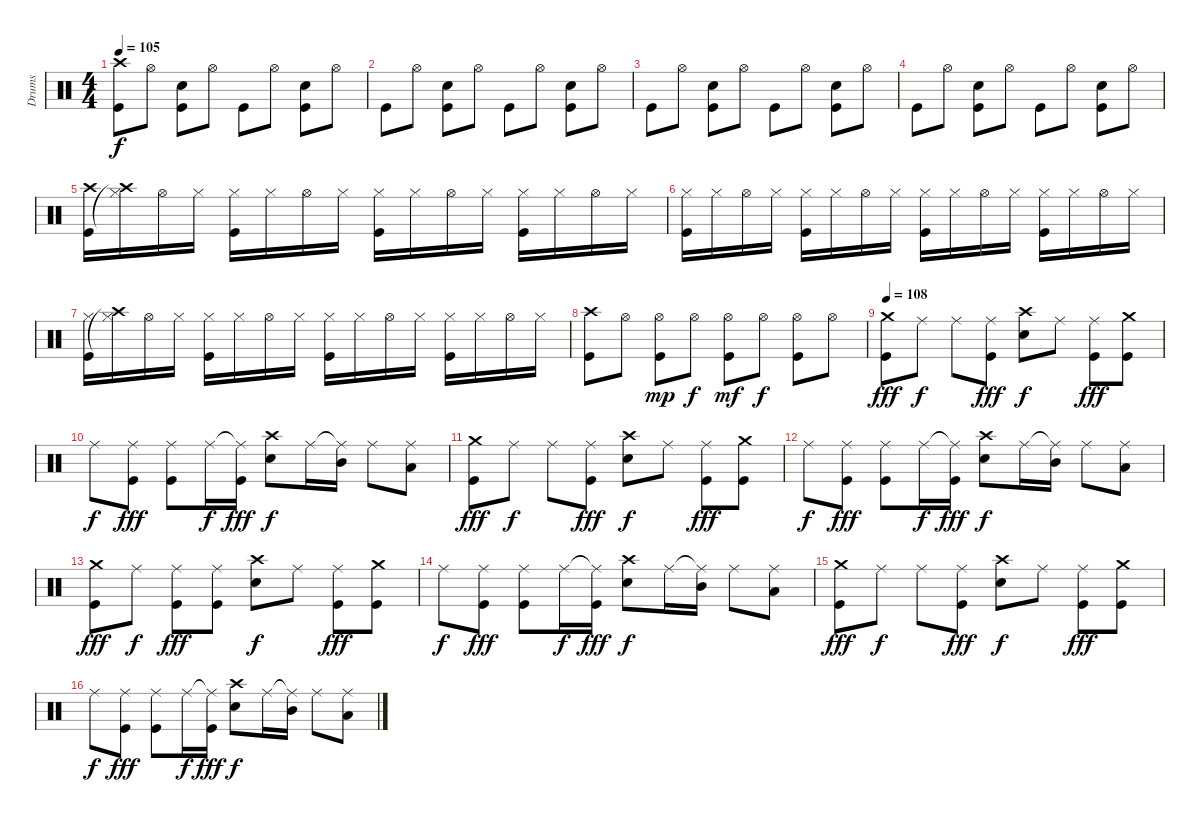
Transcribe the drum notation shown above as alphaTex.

\track ("Drums" "Drums") {instrument percussion}
\staff {score}
\articulation defaults
\ts (4 4)
\tempo 105
\clef neutral
\ks c
("Crash high (hit)" "Kick (hit)").8{dy f} "Hi-Hat (open)".8 ("Snare (hit) 2" "Kick (hit)").8 "Hi-Hat (open)".8 "Kick (hit)".8 "Hi-Hat (open)".8 ("Snare (hit) 2" "Kick (hit)").8 "Hi-Hat (open)".8 |
"Kick (hit)".8 "Hi-Hat (open)".8 ("Snare (hit) 2" "Kick (hit)").8 "Hi-Hat (open)".8 "Kick (hit)".8 "Hi-Hat (open)".8 ("Snare (hit) 2" "Kick (hit)").8 "Hi-Hat (open)".8 |
"Kick (hit)".8 "Hi-Hat (open)".8 ("Snare (hit) 2" "Kick (hit)").8 "Hi-Hat (open)".8 "Kick (hit)".8 "Hi-Hat (open)".8 ("Snare (hit) 2" "Kick (hit)").8 "Hi-Hat (open)".8 |
"Kick (hit)".8 "Hi-Hat (open)".8 ("Snare (hit) 2" "Kick (hit)").8 "Hi-Hat (open)".8 "Kick (hit)".8 "Hi-Hat (open)".8 ("Snare (hit) 2" "Kick (hit)").8 "Hi-Hat (open)".8 |
("Crash high (hit)" "Kick (hit)").16 ("Hi-Hat (closed)" "Crash high (hit)"{t}).16 "Hi-Hat (open)".16 "Hi-Hat (closed)".16 ("Hi-Hat (closed)" "Kick (hit)").16 "Hi-Hat (closed)".16 "Hi-Hat (open)".16 "Hi-Hat (closed)".16 ("Hi-Hat (closed)" "Kick (hit)").16 "Hi-Hat (closed)".16 "Hi-Hat (open)".16 "Hi-Hat (closed)".16 ("Hi-Hat (closed)" "Kick (hit)").16 "Hi-Hat (closed)".16 "Hi-Hat (open)".16 "Hi-Hat (closed)".16 |
("Hi-Hat (closed)" "Kick (hit)").16 "Hi-Hat (closed)".16 "Hi-Hat (open)".16 "Hi-Hat (closed)".16 ("Hi-Hat (closed)" "Kick (hit)").16 "Hi-Hat (closed)".16 "Hi-Hat (open)".16 "Hi-Hat (closed)".16 ("Hi-Hat (closed)" "Kick (hit)").16 "Hi-Hat (closed)".16 "Hi-Hat (open)".16 "Hi-Hat (closed)".16 ("Hi-Hat (closed)" "Kick (hit)").16 "Hi-Hat (closed)".16 "Hi-Hat (open)".16 "Hi-Hat (closed)".16 |
("Hi-Hat (closed)" "Kick (hit)").16 ("Hi-Hat (closed)" "Crash high (hit)"{t}).16 "Hi-Hat (open)".16 "Hi-Hat (closed)".16 ("Hi-Hat (closed)" "Kick (hit)").16 "Hi-Hat (closed)".16 "Hi-Hat (open)".16 "Hi-Hat (closed)".16 ("Hi-Hat (closed)" "Kick (hit)").16 "Hi-Hat (closed)".16 "Hi-Hat (open)".16 "Hi-Hat (closed)".16 ("Hi-Hat (closed)" "Kick (hit)").16 "Hi-Hat (closed)".16 "Hi-Hat (open)".16 "Hi-Hat (closed)".16 |
("Crash high (hit)" "Kick (hit)").8 "Hi-Hat (open)".8 ("Hi-Hat (open)" "Kick (hit)").8{dy mp} "Hi-Hat (open)".8{dy f} ("Hi-Hat (open)" "Kick (hit)").8{dy mf} "Hi-Hat (open)".8{dy f} ("Hi-Hat (open)" "Kick (hit)").8 "Hi-Hat (open)".8 |
\tempo 108
("Crash medium (hit)" "Kick (hit)").8{dy fff} "Ride (middle)".8{dy f} "Ride (middle)".8 ("Ride (middle)" "Kick (hit)").8{dy fff} ("Crash high (hit)" "Snare (hit) 2").8{dy f} "Ride (middle)".8 ("Ride (middle)" "Kick (hit)").8{dy fff} ("Crash medium (hit)" "Kick (hit)").8 |
"Ride (middle)".8{dy f} ("Ride (middle)" "Kick (hit)").8{dy fff} ("Ride (middle)" "Kick (hit)").8 "Ride (middle)".16{dy f} ("Ride (middle)"{t} "Kick (hit)").16{dy fff} ("Crash high (hit)" "Snare (hit) 2").8{dy f} "Ride (middle)".16 ("Ride (middle)"{t} "Mid Tom (hit)").16 "Ride (middle)".8 ("Ride (middle)" "Low Tom (hit)").8 |
("Crash medium (hit)" "Kick (hit)").8{dy fff} "Ride (middle)".8{dy f} "Ride (middle)".8 ("Ride (middle)" "Kick (hit)").8{dy fff} ("Crash high (hit)" "Snare (hit) 2").8{dy f} "Ride (middle)".8 ("Ride (middle)" "Kick (hit)").8{dy fff} ("Crash medium (hit)" "Kick (hit)").8 |
"Ride (middle)".8{dy f} ("Ride (middle)" "Kick (hit)").8{dy fff} ("Ride (middle)" "Kick (hit)").8 "Ride (middle)".16{dy f} ("Ride (middle)"{t} "Kick (hit)").16{dy fff} ("Crash high (hit)" "Snare (hit) 2").8{dy f} "Ride (middle)".16 ("Ride (middle)"{t} "Mid Tom (hit)").16 "Ride (middle)".8 ("Ride (middle)" "Low Tom (hit)").8 |
("Crash medium (hit)" "Kick (hit)").8{dy fff} "Ride (middle)".8{dy f} ("Ride (middle)" "Kick (hit)").8{dy fff} ("Ride (middle)" "Kick (hit)").8 ("Crash high (hit)" "Snare (hit) 2").8{dy f} "Ride (middle)".8 ("Ride (middle)" "Kick (hit)").8{dy fff} ("Crash medium (hit)" "Kick (hit)").8 |
"Ride (middle)".8{dy f} ("Ride (middle)" "Kick (hit)").8{dy fff} ("Ride (middle)" "Kick (hit)").8 "Ride (middle)".16{dy f} ("Ride (middle)"{t} "Kick (hit)").16{dy fff} ("Crash high (hit)" "Snare (hit) 2").8{dy f} "Ride (middle)".16 ("Ride (middle)"{t} "Mid Tom (hit)").16 "Ride (middle)".8 ("Ride (middle)" "Low Tom (hit)").8 |
("Crash medium (hit)" "Kick (hit)").8{dy fff} "Ride (middle)".8{dy f} "Ride (middle)".8 ("Ride (middle)" "Kick (hit)").8{dy fff} ("Crash high (hit)" "Snare (hit) 2").8{dy f} "Ride (middle)".8 ("Ride (middle)" "Kick (hit)").8{dy fff} ("Crash medium (hit)" "Kick (hit)").8 |
"Ride (middle)".8{dy f} ("Ride (middle)" "Kick (hit)").8{dy fff} ("Ride (middle)" "Kick (hit)").8 "Ride (middle)".16{dy f} ("Ride (middle)"{t} "Kick (hit)").16{dy fff} ("Crash high (hit)" "Snare (hit) 2").8{dy f} "Ride (middle)".16 ("Ride (middle)"{t} "Mid Tom (hit)").16 "Ride (middle)".8 ("Ride (middle)" "Low Tom (hit)").8
